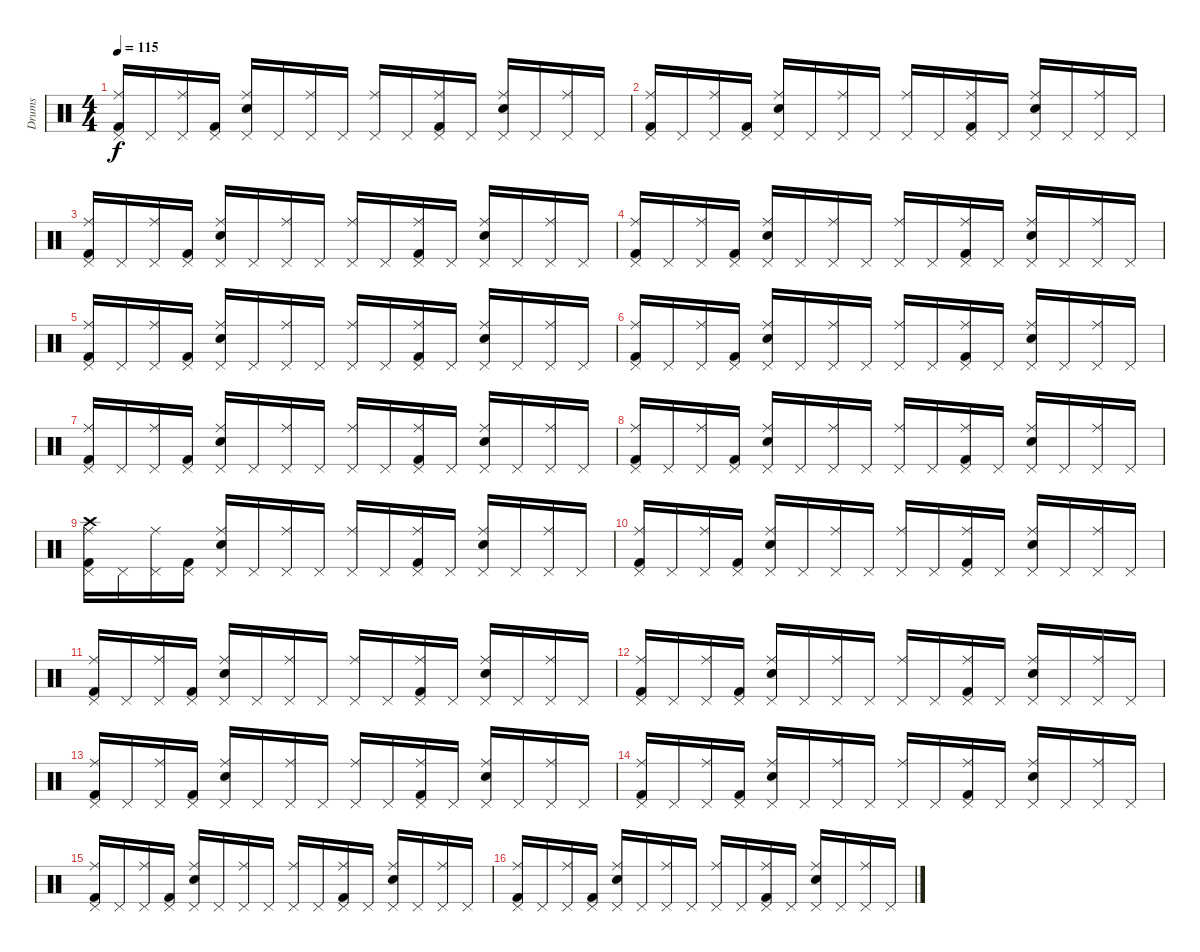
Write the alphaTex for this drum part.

\track ("Drums" "Drums") {instrument percussion}
\staff {score}
\articulation defaults
\ts (4 4)
\tempo 115
\clef neutral
\ks c
("Pedal Hi-Hat (hit)" "Kick (hit) 2" "Ride (middle)").16{dy f} "Pedal Hi-Hat (hit)".16 ("Pedal Hi-Hat (hit)" "Ride (middle)").16 ("Pedal Hi-Hat (hit)" "Kick (hit) 2").16 ("Pedal Hi-Hat (hit)" "Snare (hit) 2" "Ride (middle)").16 "Pedal Hi-Hat (hit)".16 ("Pedal Hi-Hat (hit)" "Ride (middle)").16 "Pedal Hi-Hat (hit)".16 ("Pedal Hi-Hat (hit)" "Ride (middle)").16 "Pedal Hi-Hat (hit)".16 ("Pedal Hi-Hat (hit)" "Kick (hit) 2" "Ride (middle)").16 "Pedal Hi-Hat (hit)".16 ("Pedal Hi-Hat (hit)" "Snare (hit) 2" "Ride (middle)").16 "Pedal Hi-Hat (hit)".16 ("Pedal Hi-Hat (hit)" "Ride (middle)").16 "Pedal Hi-Hat (hit)".16 |
("Pedal Hi-Hat (hit)" "Kick (hit) 2" "Ride (middle)").16 "Pedal Hi-Hat (hit)".16 ("Pedal Hi-Hat (hit)" "Ride (middle)").16 ("Pedal Hi-Hat (hit)" "Kick (hit) 2").16 ("Pedal Hi-Hat (hit)" "Snare (hit) 2" "Ride (middle)").16 "Pedal Hi-Hat (hit)".16 ("Pedal Hi-Hat (hit)" "Ride (middle)").16 "Pedal Hi-Hat (hit)".16 ("Pedal Hi-Hat (hit)" "Ride (middle)").16 "Pedal Hi-Hat (hit)".16 ("Pedal Hi-Hat (hit)" "Kick (hit) 2" "Ride (middle)").16 "Pedal Hi-Hat (hit)".16 ("Pedal Hi-Hat (hit)" "Snare (hit) 2" "Ride (middle)").16 "Pedal Hi-Hat (hit)".16 ("Pedal Hi-Hat (hit)" "Ride (middle)").16 "Pedal Hi-Hat (hit)".16 |
("Pedal Hi-Hat (hit)" "Kick (hit) 2" "Ride (middle)").16 "Pedal Hi-Hat (hit)".16 ("Pedal Hi-Hat (hit)" "Ride (middle)").16 ("Pedal Hi-Hat (hit)" "Kick (hit) 2").16 ("Pedal Hi-Hat (hit)" "Snare (hit) 2" "Ride (middle)").16 "Pedal Hi-Hat (hit)".16 ("Pedal Hi-Hat (hit)" "Ride (middle)").16 "Pedal Hi-Hat (hit)".16 ("Pedal Hi-Hat (hit)" "Ride (middle)").16 "Pedal Hi-Hat (hit)".16 ("Pedal Hi-Hat (hit)" "Kick (hit) 2" "Ride (middle)").16 "Pedal Hi-Hat (hit)".16 ("Pedal Hi-Hat (hit)" "Snare (hit) 2" "Ride (middle)").16 "Pedal Hi-Hat (hit)".16 ("Pedal Hi-Hat (hit)" "Ride (middle)").16 "Pedal Hi-Hat (hit)".16 |
("Pedal Hi-Hat (hit)" "Kick (hit) 2" "Ride (middle)").16 "Pedal Hi-Hat (hit)".16 ("Pedal Hi-Hat (hit)" "Ride (middle)").16 ("Pedal Hi-Hat (hit)" "Kick (hit) 2").16 ("Pedal Hi-Hat (hit)" "Snare (hit) 2" "Ride (middle)").16 "Pedal Hi-Hat (hit)".16 ("Pedal Hi-Hat (hit)" "Ride (middle)").16 "Pedal Hi-Hat (hit)".16 ("Pedal Hi-Hat (hit)" "Ride (middle)").16 "Pedal Hi-Hat (hit)".16 ("Pedal Hi-Hat (hit)" "Kick (hit) 2" "Ride (middle)").16 "Pedal Hi-Hat (hit)".16 ("Pedal Hi-Hat (hit)" "Snare (hit) 2" "Ride (middle)").16 "Pedal Hi-Hat (hit)".16 ("Pedal Hi-Hat (hit)" "Ride (middle)").16 "Pedal Hi-Hat (hit)".16 |
("Pedal Hi-Hat (hit)" "Kick (hit) 2" "Ride (middle)").16 "Pedal Hi-Hat (hit)".16 ("Pedal Hi-Hat (hit)" "Ride (middle)").16 ("Pedal Hi-Hat (hit)" "Kick (hit) 2").16 ("Pedal Hi-Hat (hit)" "Snare (hit) 2" "Ride (middle)").16 "Pedal Hi-Hat (hit)".16 ("Pedal Hi-Hat (hit)" "Ride (middle)").16 "Pedal Hi-Hat (hit)".16 ("Pedal Hi-Hat (hit)" "Ride (middle)").16 "Pedal Hi-Hat (hit)".16 ("Pedal Hi-Hat (hit)" "Kick (hit) 2" "Ride (middle)").16 "Pedal Hi-Hat (hit)".16 ("Pedal Hi-Hat (hit)" "Snare (hit) 2" "Ride (middle)").16 "Pedal Hi-Hat (hit)".16 ("Pedal Hi-Hat (hit)" "Ride (middle)").16 "Pedal Hi-Hat (hit)".16 |
("Pedal Hi-Hat (hit)" "Kick (hit) 2" "Ride (middle)").16 "Pedal Hi-Hat (hit)".16 ("Pedal Hi-Hat (hit)" "Ride (middle)").16 ("Pedal Hi-Hat (hit)" "Kick (hit) 2").16 ("Pedal Hi-Hat (hit)" "Snare (hit) 2" "Ride (middle)").16 "Pedal Hi-Hat (hit)".16 ("Pedal Hi-Hat (hit)" "Ride (middle)").16 "Pedal Hi-Hat (hit)".16 ("Pedal Hi-Hat (hit)" "Ride (middle)").16 "Pedal Hi-Hat (hit)".16 ("Pedal Hi-Hat (hit)" "Kick (hit) 2" "Ride (middle)").16 "Pedal Hi-Hat (hit)".16 ("Pedal Hi-Hat (hit)" "Snare (hit) 2" "Ride (middle)").16 "Pedal Hi-Hat (hit)".16 ("Pedal Hi-Hat (hit)" "Ride (middle)").16 "Pedal Hi-Hat (hit)".16 |
("Pedal Hi-Hat (hit)" "Kick (hit) 2" "Ride (middle)").16 "Pedal Hi-Hat (hit)".16 ("Pedal Hi-Hat (hit)" "Ride (middle)").16 ("Pedal Hi-Hat (hit)" "Kick (hit) 2").16 ("Pedal Hi-Hat (hit)" "Snare (hit) 2" "Ride (middle)").16 "Pedal Hi-Hat (hit)".16 ("Pedal Hi-Hat (hit)" "Ride (middle)").16 "Pedal Hi-Hat (hit)".16 ("Pedal Hi-Hat (hit)" "Ride (middle)").16 "Pedal Hi-Hat (hit)".16 ("Pedal Hi-Hat (hit)" "Kick (hit) 2" "Ride (middle)").16 "Pedal Hi-Hat (hit)".16 ("Pedal Hi-Hat (hit)" "Snare (hit) 2" "Ride (middle)").16 "Pedal Hi-Hat (hit)".16 ("Pedal Hi-Hat (hit)" "Ride (middle)").16 "Pedal Hi-Hat (hit)".16 |
("Pedal Hi-Hat (hit)" "Kick (hit) 2" "Ride (middle)").16 "Pedal Hi-Hat (hit)".16 ("Pedal Hi-Hat (hit)" "Ride (middle)").16 ("Pedal Hi-Hat (hit)" "Kick (hit) 2").16 ("Pedal Hi-Hat (hit)" "Snare (hit) 2" "Ride (middle)").16 "Pedal Hi-Hat (hit)".16 ("Pedal Hi-Hat (hit)" "Ride (middle)").16 "Pedal Hi-Hat (hit)".16 ("Pedal Hi-Hat (hit)" "Ride (middle)").16 "Pedal Hi-Hat (hit)".16 ("Pedal Hi-Hat (hit)" "Kick (hit) 2" "Ride (middle)").16 "Pedal Hi-Hat (hit)".16 ("Pedal Hi-Hat (hit)" "Snare (hit) 2" "Ride (middle)").16 "Pedal Hi-Hat (hit)".16 ("Pedal Hi-Hat (hit)" "Ride (middle)").16 "Pedal Hi-Hat (hit)".16 |
("Pedal Hi-Hat (hit)" "Kick (hit) 2" "Ride (middle)" "Crash high (hit)").16 "Pedal Hi-Hat (hit)".16 ("Pedal Hi-Hat (hit)" "Ride (middle)").16 ("Pedal Hi-Hat (hit)" "Kick (hit) 2").16 ("Pedal Hi-Hat (hit)" "Snare (hit) 2" "Ride (middle)").16 "Pedal Hi-Hat (hit)".16 ("Pedal Hi-Hat (hit)" "Ride (middle)").16 "Pedal Hi-Hat (hit)".16 ("Pedal Hi-Hat (hit)" "Ride (middle)").16 "Pedal Hi-Hat (hit)".16 ("Pedal Hi-Hat (hit)" "Kick (hit) 2" "Ride (middle)").16 "Pedal Hi-Hat (hit)".16 ("Pedal Hi-Hat (hit)" "Snare (hit) 2" "Ride (middle)").16 "Pedal Hi-Hat (hit)".16 ("Pedal Hi-Hat (hit)" "Ride (middle)").16 "Pedal Hi-Hat (hit)".16 |
("Pedal Hi-Hat (hit)" "Kick (hit) 2" "Ride (middle)").16 "Pedal Hi-Hat (hit)".16 ("Pedal Hi-Hat (hit)" "Ride (middle)").16 ("Pedal Hi-Hat (hit)" "Kick (hit) 2").16 ("Pedal Hi-Hat (hit)" "Snare (hit) 2" "Ride (middle)").16 "Pedal Hi-Hat (hit)".16 ("Pedal Hi-Hat (hit)" "Ride (middle)").16 "Pedal Hi-Hat (hit)".16 ("Pedal Hi-Hat (hit)" "Ride (middle)").16 "Pedal Hi-Hat (hit)".16 ("Pedal Hi-Hat (hit)" "Kick (hit) 2" "Ride (middle)").16 "Pedal Hi-Hat (hit)".16 ("Pedal Hi-Hat (hit)" "Snare (hit) 2" "Ride (middle)").16 "Pedal Hi-Hat (hit)".16 ("Pedal Hi-Hat (hit)" "Ride (middle)").16 "Pedal Hi-Hat (hit)".16 |
("Pedal Hi-Hat (hit)" "Kick (hit) 2" "Ride (middle)").16 "Pedal Hi-Hat (hit)".16 ("Pedal Hi-Hat (hit)" "Ride (middle)").16 ("Pedal Hi-Hat (hit)" "Kick (hit) 2").16 ("Pedal Hi-Hat (hit)" "Snare (hit) 2" "Ride (middle)").16 "Pedal Hi-Hat (hit)".16 ("Pedal Hi-Hat (hit)" "Ride (middle)").16 "Pedal Hi-Hat (hit)".16 ("Pedal Hi-Hat (hit)" "Ride (middle)").16 "Pedal Hi-Hat (hit)".16 ("Pedal Hi-Hat (hit)" "Kick (hit) 2" "Ride (middle)").16 "Pedal Hi-Hat (hit)".16 ("Pedal Hi-Hat (hit)" "Snare (hit) 2" "Ride (middle)").16 "Pedal Hi-Hat (hit)".16 ("Pedal Hi-Hat (hit)" "Ride (middle)").16 "Pedal Hi-Hat (hit)".16 |
("Pedal Hi-Hat (hit)" "Kick (hit) 2" "Ride (middle)").16 "Pedal Hi-Hat (hit)".16 ("Pedal Hi-Hat (hit)" "Ride (middle)").16 ("Pedal Hi-Hat (hit)" "Kick (hit) 2").16 ("Pedal Hi-Hat (hit)" "Snare (hit) 2" "Ride (middle)").16 "Pedal Hi-Hat (hit)".16 ("Pedal Hi-Hat (hit)" "Ride (middle)").16 "Pedal Hi-Hat (hit)".16 ("Pedal Hi-Hat (hit)" "Ride (middle)").16 "Pedal Hi-Hat (hit)".16 ("Pedal Hi-Hat (hit)" "Kick (hit) 2" "Ride (middle)").16 "Pedal Hi-Hat (hit)".16 ("Pedal Hi-Hat (hit)" "Snare (hit) 2" "Ride (middle)").16 "Pedal Hi-Hat (hit)".16 ("Pedal Hi-Hat (hit)" "Ride (middle)").16 "Pedal Hi-Hat (hit)".16 |
("Pedal Hi-Hat (hit)" "Kick (hit) 2" "Ride (middle)").16 "Pedal Hi-Hat (hit)".16 ("Pedal Hi-Hat (hit)" "Ride (middle)").16 ("Pedal Hi-Hat (hit)" "Kick (hit) 2").16 ("Pedal Hi-Hat (hit)" "Snare (hit) 2" "Ride (middle)").16 "Pedal Hi-Hat (hit)".16 ("Pedal Hi-Hat (hit)" "Ride (middle)").16 "Pedal Hi-Hat (hit)".16 ("Pedal Hi-Hat (hit)" "Ride (middle)").16 "Pedal Hi-Hat (hit)".16 ("Pedal Hi-Hat (hit)" "Kick (hit) 2" "Ride (middle)").16 "Pedal Hi-Hat (hit)".16 ("Pedal Hi-Hat (hit)" "Snare (hit) 2" "Ride (middle)").16 "Pedal Hi-Hat (hit)".16 ("Pedal Hi-Hat (hit)" "Ride (middle)").16 "Pedal Hi-Hat (hit)".16 |
("Pedal Hi-Hat (hit)" "Kick (hit) 2" "Ride (middle)").16 "Pedal Hi-Hat (hit)".16 ("Pedal Hi-Hat (hit)" "Ride (middle)").16 ("Pedal Hi-Hat (hit)" "Kick (hit) 2").16 ("Pedal Hi-Hat (hit)" "Snare (hit) 2" "Ride (middle)").16 "Pedal Hi-Hat (hit)".16 ("Pedal Hi-Hat (hit)" "Ride (middle)").16 "Pedal Hi-Hat (hit)".16 ("Pedal Hi-Hat (hit)" "Ride (middle)").16 "Pedal Hi-Hat (hit)".16 ("Pedal Hi-Hat (hit)" "Kick (hit) 2" "Ride (middle)").16 "Pedal Hi-Hat (hit)".16 ("Pedal Hi-Hat (hit)" "Snare (hit) 2" "Ride (middle)").16 "Pedal Hi-Hat (hit)".16 ("Pedal Hi-Hat (hit)" "Ride (middle)").16 "Pedal Hi-Hat (hit)".16 |
("Pedal Hi-Hat (hit)" "Kick (hit) 2" "Ride (middle)").16 "Pedal Hi-Hat (hit)".16 ("Pedal Hi-Hat (hit)" "Ride (middle)").16 ("Pedal Hi-Hat (hit)" "Kick (hit) 2").16 ("Pedal Hi-Hat (hit)" "Snare (hit) 2" "Ride (middle)").16 "Pedal Hi-Hat (hit)".16 ("Pedal Hi-Hat (hit)" "Ride (middle)").16 "Pedal Hi-Hat (hit)".16 ("Pedal Hi-Hat (hit)" "Ride (middle)").16 "Pedal Hi-Hat (hit)".16 ("Pedal Hi-Hat (hit)" "Kick (hit) 2" "Ride (middle)").16 "Pedal Hi-Hat (hit)".16 ("Pedal Hi-Hat (hit)" "Snare (hit) 2" "Ride (middle)").16 "Pedal Hi-Hat (hit)".16 ("Pedal Hi-Hat (hit)" "Ride (middle)").16 "Pedal Hi-Hat (hit)".16 |
("Pedal Hi-Hat (hit)" "Kick (hit) 2" "Ride (middle)").16 "Pedal Hi-Hat (hit)".16 ("Pedal Hi-Hat (hit)" "Ride (middle)").16 ("Pedal Hi-Hat (hit)" "Kick (hit) 2").16 ("Pedal Hi-Hat (hit)" "Snare (hit) 2" "Ride (middle)").16 "Pedal Hi-Hat (hit)".16 ("Pedal Hi-Hat (hit)" "Ride (middle)").16 "Pedal Hi-Hat (hit)".16 ("Pedal Hi-Hat (hit)" "Ride (middle)").16 "Pedal Hi-Hat (hit)".16 ("Pedal Hi-Hat (hit)" "Kick (hit) 2" "Ride (middle)").16 "Pedal Hi-Hat (hit)".16 ("Pedal Hi-Hat (hit)" "Snare (hit) 2" "Ride (middle)").16 "Pedal Hi-Hat (hit)".16 ("Pedal Hi-Hat (hit)" "Ride (middle)").16 "Pedal Hi-Hat (hit)".16
